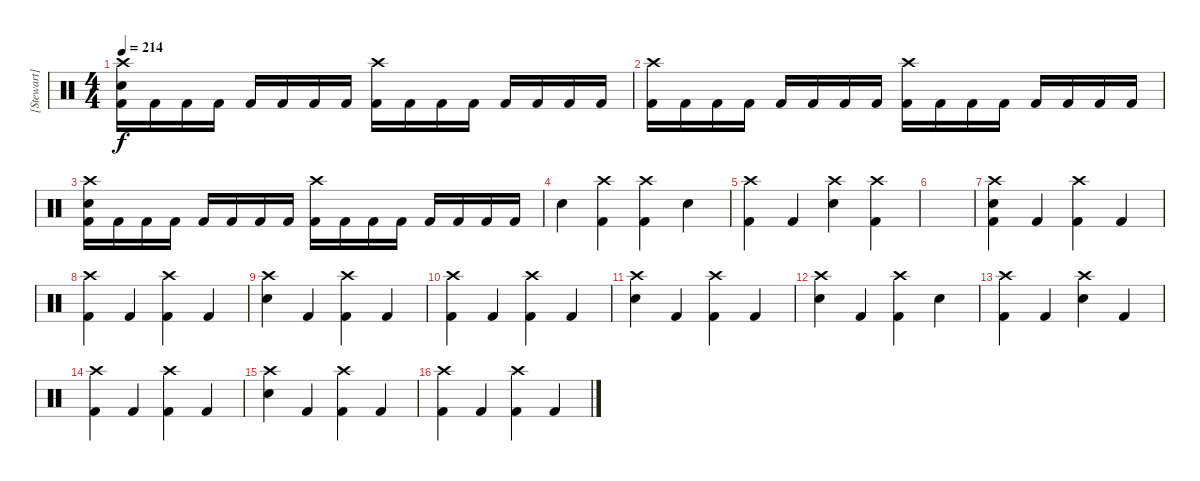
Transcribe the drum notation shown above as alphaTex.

\track ("[Stewart]" "[Stewart]") {instrument percussion}
\staff {score}
\articulation defaults
\ts (4 4)
\tempo 214
\clef neutral
\ks c
("Crash high (hit)" "Electric Snare (hit)" "Kick (hit) 2").16{dy f} "Kick (hit) 2".16 "Kick (hit) 2".16 "Kick (hit) 2".16 "Kick (hit) 2".16 "Kick (hit) 2".16 "Kick (hit) 2".16 "Kick (hit) 2".16 ("Crash high (hit)" "Kick (hit) 2").16 "Kick (hit) 2".16 "Kick (hit) 2".16 "Kick (hit) 2".16 "Kick (hit) 2".16 "Kick (hit) 2".16 "Kick (hit) 2".16 "Kick (hit) 2".16 |
("Crash high (hit)" "Kick (hit) 2").16 "Kick (hit) 2".16 "Kick (hit) 2".16 "Kick (hit) 2".16 "Kick (hit) 2".16 "Kick (hit) 2".16 "Kick (hit) 2".16 "Kick (hit) 2".16 ("Crash high (hit)" "Kick (hit) 2").16 "Kick (hit) 2".16 "Kick (hit) 2".16 "Kick (hit) 2".16 "Kick (hit) 2".16 "Kick (hit) 2".16 "Kick (hit) 2".16 "Kick (hit) 2".16 |
("Crash high (hit)" "Electric Snare (hit)" "Kick (hit) 2").16 "Kick (hit) 2".16 "Kick (hit) 2".16 "Kick (hit) 2".16 "Kick (hit) 2".16 "Kick (hit) 2".16 "Kick (hit) 2".16 "Kick (hit) 2".16 ("Crash high (hit)" "Kick (hit) 2").16 "Kick (hit) 2".16 "Kick (hit) 2".16 "Kick (hit) 2".16 "Kick (hit) 2".16 "Kick (hit) 2".16 "Kick (hit) 2".16 "Kick (hit) 2".16 |
"Electric Snare (hit)".4 ("Crash high (hit)" "Kick (hit) 2").4 ("Crash high (hit)" "Kick (hit) 2").4 "Electric Snare (hit)".4 |
("Crash high (hit)" "Kick (hit) 2").4 "Kick (hit) 2".4 ("Crash high (hit)" "Electric Snare (hit)").4 ("Crash high (hit)" "Kick (hit) 2").4 |
|
("Crash high (hit)" "Electric Snare (hit)" "Kick (hit) 2").4 "Kick (hit) 2".4 ("Crash high (hit)" "Kick (hit) 2").4 "Kick (hit) 2".4 |
("Crash high (hit)" "Kick (hit) 2").4 "Kick (hit) 2".4 ("Crash high (hit)" "Kick (hit) 2").4 "Kick (hit) 2".4 |
("Crash high (hit)" "Electric Snare (hit)").4 "Kick (hit) 2".4 ("Crash high (hit)" "Kick (hit) 2").4 "Kick (hit) 2".4 |
("Crash high (hit)" "Kick (hit) 2").4 "Kick (hit) 2".4 ("Crash high (hit)" "Kick (hit) 2").4 "Kick (hit) 2".4 |
("Crash high (hit)" "Electric Snare (hit)").4 "Kick (hit) 2".4 ("Crash high (hit)" "Kick (hit) 2").4 "Kick (hit) 2".4 |
("Crash high (hit)" "Electric Snare (hit)").4 "Kick (hit) 2".4 ("Crash high (hit)" "Kick (hit) 2").4 "Electric Snare (hit)".4 |
("Crash high (hit)" "Kick (hit) 2").4 "Kick (hit) 2".4 ("Crash high (hit)" "Electric Snare (hit)").4 "Kick (hit) 2".4 |
("Crash high (hit)" "Kick (hit) 2").4 "Kick (hit) 2".4 ("Crash high (hit)" "Kick (hit) 2").4 "Kick (hit) 2".4 |
("Crash high (hit)" "Electric Snare (hit)").4 "Kick (hit) 2".4 ("Crash high (hit)" "Kick (hit) 2").4 "Kick (hit) 2".4 |
("Crash high (hit)" "Kick (hit) 2").4 "Kick (hit) 2".4 ("Crash high (hit)" "Kick (hit) 2").4 "Kick (hit) 2".4
